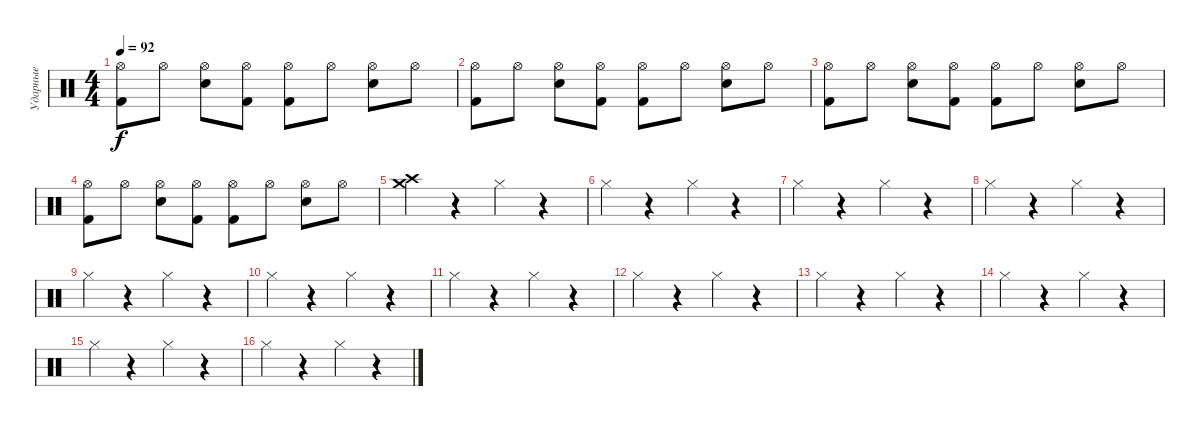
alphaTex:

\track ("Ударные" "Ударные") {instrument percussion}
\staff {score}
\articulation defaults
\ts (4 4)
\tempo 92
\clef neutral
\ks c
("Kick (hit) 2" "Hi-Hat (open)").8{dy f} "Hi-Hat (open)".8 ("Electric Snare (hit)" "Hi-Hat (open)").8 ("Kick (hit) 2" "Hi-Hat (open)").8 ("Kick (hit) 2" "Hi-Hat (open)").8 "Hi-Hat (open)".8 ("Electric Snare (hit)" "Hi-Hat (open)").8 "Hi-Hat (open)".8 |
("Kick (hit) 2" "Hi-Hat (open)").8 "Hi-Hat (open)".8 ("Electric Snare (hit)" "Hi-Hat (open)").8 ("Kick (hit) 2" "Hi-Hat (open)").8 ("Kick (hit) 2" "Hi-Hat (open)").8 "Hi-Hat (open)".8 ("Electric Snare (hit)" "Hi-Hat (open)").8 "Hi-Hat (open)".8 |
("Kick (hit) 2" "Hi-Hat (open)").8 "Hi-Hat (open)".8 ("Electric Snare (hit)" "Hi-Hat (open)").8 ("Kick (hit) 2" "Hi-Hat (open)").8 ("Kick (hit) 2" "Hi-Hat (open)").8 "Hi-Hat (open)".8 ("Electric Snare (hit)" "Hi-Hat (open)").8 "Hi-Hat (open)".8 |
("Kick (hit) 2" "Hi-Hat (open)").8 "Hi-Hat (open)".8 ("Electric Snare (hit)" "Hi-Hat (open)").8 ("Kick (hit) 2" "Hi-Hat (open)").8 ("Kick (hit) 2" "Hi-Hat (open)").8 "Hi-Hat (open)".8 ("Electric Snare (hit)" "Hi-Hat (open)").8 "Hi-Hat (open)".8 |
("Crash medium (hit)" "Crash high (hit)").4 r.4 "Hi-Hat (closed)".4 r.4 |
"Hi-Hat (closed)".4 r.4 "Hi-Hat (closed)".4 r.4 |
"Hi-Hat (closed)".4 r.4 "Hi-Hat (closed)".4 r.4 |
"Hi-Hat (closed)".4 r.4 "Hi-Hat (closed)".4 r.4 |
"Hi-Hat (closed)".4 r.4 "Hi-Hat (closed)".4 r.4 |
"Hi-Hat (closed)".4 r.4 "Hi-Hat (closed)".4 r.4 |
"Hi-Hat (closed)".4 r.4 "Hi-Hat (closed)".4 r.4 |
"Hi-Hat (closed)".4 r.4 "Hi-Hat (closed)".4 r.4 |
"Hi-Hat (closed)".4 r.4 "Hi-Hat (closed)".4 r.4 |
"Hi-Hat (closed)".4 r.4 "Hi-Hat (closed)".4 r.4 |
"Hi-Hat (closed)".4 r.4 "Hi-Hat (closed)".4 r.4 |
"Hi-Hat (closed)".4 r.4 "Hi-Hat (closed)".4 r.4
